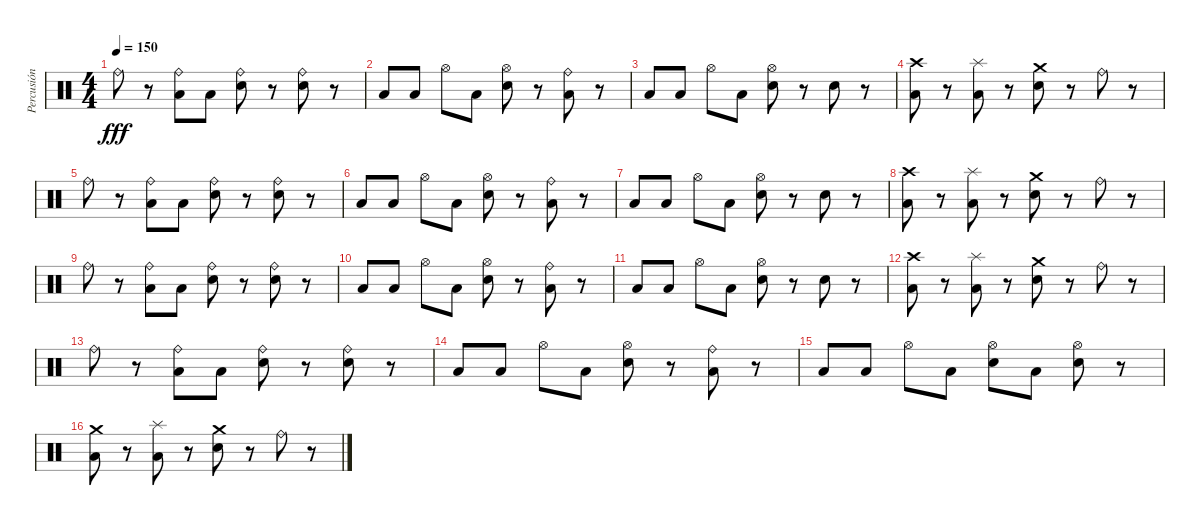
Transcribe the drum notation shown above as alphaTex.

\track ("Percusión" "Percusión") {instrument percussion}
\staff {score}
\articulation defaults
\ts (4 4)
\tempo 150
\clef neutral
\ks c "Ride (bell)".8{dy fff}
r.8 ("Ride (bell)" "Low Tom (hit)").8 "Low Tom (hit)".8 ("Ride (bell)" "Snare (hit) 2").8 r.8 ("Ride (bell)" "Snare (hit) 2").8 r.8 |
"Low Tom (hit)".8 "Low Tom (hit)".8 "Hi-Hat (open)".8 "Low Tom (hit)".8 ("Hi-Hat (open)" "Snare (hit) 2").8 r.8 ("Ride (bell)" "Low Tom (hit)").8 r.8 |
"Low Tom (hit)".8 "Low Tom (hit)".8 "Hi-Hat (open)".8 "Low Tom (hit)".8 ("Hi-Hat (open)" "Snare (hit) 2").8 r.8 "Snare (hit) 2".8 r.8 |
("Crash high (hit)" "Low Tom (hit)").8 r.8 ("Splash (hit)" "Low Tom (hit)").8 r.8 ("Crash medium (hit)" "Snare (hit) 2").8 r.8 "Ride (bell)".8 r.8 |
"Ride (bell)".8 r.8 ("Ride (bell)" "Low Tom (hit)").8 "Low Tom (hit)".8 ("Ride (bell)" "Snare (hit) 2").8 r.8 ("Ride (bell)" "Snare (hit) 2").8 r.8 |
"Low Tom (hit)".8 "Low Tom (hit)".8 "Hi-Hat (open)".8 "Low Tom (hit)".8 ("Hi-Hat (open)" "Snare (hit) 2").8 r.8 ("Ride (bell)" "Low Tom (hit)").8 r.8 |
"Low Tom (hit)".8 "Low Tom (hit)".8 "Hi-Hat (open)".8 "Low Tom (hit)".8 ("Hi-Hat (open)" "Snare (hit) 2").8 r.8 "Snare (hit) 2".8 r.8 |
("Crash high (hit)" "Low Tom (hit)").8 r.8 ("Splash (hit)" "Low Tom (hit)").8 r.8 ("Crash medium (hit)" "Snare (hit) 2").8 r.8 "Ride (bell)".8 r.8 |
"Ride (bell)".8 r.8 ("Ride (bell)" "Low Tom (hit)").8 "Low Tom (hit)".8 ("Ride (bell)" "Snare (hit) 2").8 r.8 ("Ride (bell)" "Snare (hit) 2").8 r.8 |
"Low Tom (hit)".8 "Low Tom (hit)".8 "Hi-Hat (open)".8 "Low Tom (hit)".8 ("Hi-Hat (open)" "Snare (hit) 2").8 r.8 ("Ride (bell)" "Low Tom (hit)").8 r.8 |
"Low Tom (hit)".8 "Low Tom (hit)".8 "Hi-Hat (open)".8 "Low Tom (hit)".8 ("Hi-Hat (open)" "Snare (hit) 2").8 r.8 "Snare (hit) 2".8 r.8 |
("Crash high (hit)" "Low Tom (hit)").8 r.8 ("Splash (hit)" "Low Tom (hit)").8 r.8 ("Crash medium (hit)" "Snare (hit) 2").8 r.8 "Ride (bell)".8 r.8 |
"Ride (bell)".8 r.8 ("Ride (bell)" "Low Tom (hit)").8 "Low Tom (hit)".8 ("Ride (bell)" "Snare (hit) 2").8 r.8 ("Ride (bell)" "Snare (hit) 2").8 r.8 |
"Low Tom (hit)".8 "Low Tom (hit)".8 "Hi-Hat (open)".8 "Low Tom (hit)".8 ("Hi-Hat (open)" "Snare (hit) 2").8 r.8 ("Ride (bell)" "Low Tom (hit)").8 r.8 |
"Low Tom (hit)".8 "Low Tom (hit)".8 "Hi-Hat (open)".8 "Low Tom (hit)".8 ("Hi-Hat (open)" "Snare (hit) 2").8 "Low Tom (hit)".8 ("Hi-Hat (open)" "Snare (hit) 2").8 r.8 |
("Crash medium (hit)" "Low Tom (hit)").8 r.8 ("Splash (hit)" "Low Tom (hit)").8 r.8 ("Crash medium (hit)" "Snare (hit) 2").8 r.8 "Ride (bell)".8 r.8
